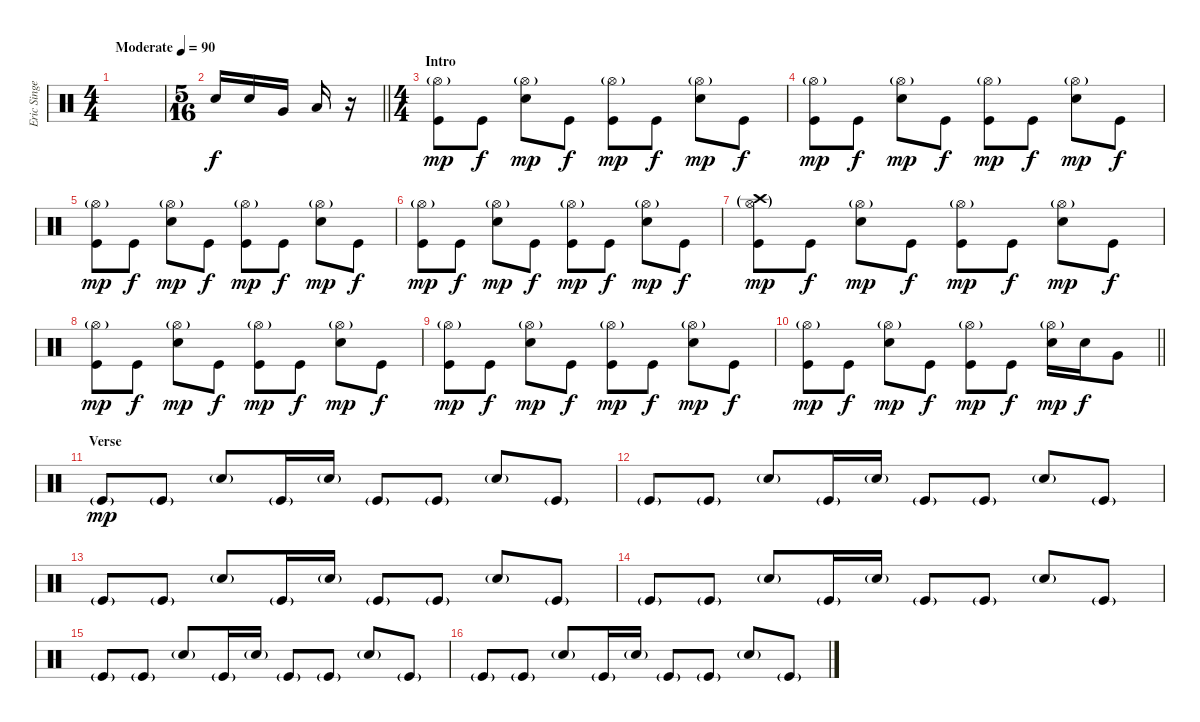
\track ("Eric Singer (Drums)" "Eric Singe") {instrument percussion}
\staff {score}
\articulation defaults
\ts (4 4)
\tempo (90 "Moderate")
\clef neutral
\ks c
|
\ts (5 16)
\barLineRight lightlight "Snare (hit) 2".16 "Snare (hit) 2".16 "Very Low Tom (hit)".16 "Low Floor Tom (hit)".16
r.16 |
\ts (4 4)
\section ("" "Intro")
("Hi-Hat (open)"{g} "Kick (hit)").8{dy mp} "Kick (hit)".8{dy f} ("Hi-Hat (open)"{g} "Snare (hit) 2").8{dy mp} "Kick (hit)".8{dy f} ("Hi-Hat (open)"{g} "Kick (hit)").8{dy mp} "Kick (hit)".8{dy f} ("Hi-Hat (open)"{g} "Snare (hit) 2").8{dy mp} "Kick (hit)".8{dy f} |
("Hi-Hat (open)"{g} "Kick (hit)").8{dy mp} "Kick (hit)".8{dy f} ("Hi-Hat (open)"{g} "Snare (hit) 2").8{dy mp} "Kick (hit)".8{dy f} ("Hi-Hat (open)"{g} "Kick (hit)").8{dy mp} "Kick (hit)".8{dy f} ("Hi-Hat (open)"{g} "Snare (hit) 2").8{dy mp} "Kick (hit)".8{dy f} |
("Hi-Hat (open)"{g} "Kick (hit)").8{dy mp} "Kick (hit)".8{dy f} ("Hi-Hat (open)"{g} "Snare (hit) 2").8{dy mp} "Kick (hit)".8{dy f} ("Hi-Hat (open)"{g} "Kick (hit)").8{dy mp} "Kick (hit)".8{dy f} ("Hi-Hat (open)"{g} "Snare (hit) 2").8{dy mp} "Kick (hit)".8{dy f} |
("Hi-Hat (open)"{g} "Kick (hit)").8{dy mp} "Kick (hit)".8{dy f} ("Hi-Hat (open)"{g} "Snare (hit) 2").8{dy mp} "Kick (hit)".8{dy f} ("Hi-Hat (open)"{g} "Kick (hit)").8{dy mp} "Kick (hit)".8{dy f} ("Hi-Hat (open)"{g} "Snare (hit) 2").8{dy mp} "Kick (hit)".8{dy f} |
("Crash high (hit)"{g} "Hi-Hat (open)"{g} "Kick (hit)").8{dy mp} "Kick (hit)".8{dy f} ("Hi-Hat (open)"{g} "Snare (hit) 2").8{dy mp} "Kick (hit)".8{dy f} ("Hi-Hat (open)"{g} "Kick (hit)").8{dy mp} "Kick (hit)".8{dy f} ("Hi-Hat (open)"{g} "Snare (hit) 2").8{dy mp} "Kick (hit)".8{dy f} |
("Hi-Hat (open)"{g} "Kick (hit)").8{dy mp} "Kick (hit)".8{dy f} ("Hi-Hat (open)"{g} "Snare (hit) 2").8{dy mp} "Kick (hit)".8{dy f} ("Hi-Hat (open)"{g} "Kick (hit)").8{dy mp} "Kick (hit)".8{dy f} ("Hi-Hat (open)"{g} "Snare (hit) 2").8{dy mp} "Kick (hit)".8{dy f} |
("Hi-Hat (open)"{g} "Kick (hit)").8{dy mp} "Kick (hit)".8{dy f} ("Hi-Hat (open)"{g} "Snare (hit) 2").8{dy mp} "Kick (hit)".8{dy f} ("Hi-Hat (open)"{g} "Kick (hit)").8{dy mp} "Kick (hit)".8{dy f} ("Hi-Hat (open)"{g} "Snare (hit) 2").8{dy mp} "Kick (hit)".8{dy f} |
\barLineRight lightlight
("Hi-Hat (open)"{g} "Kick (hit)").8{dy mp} "Kick (hit)".8{dy f} ("Hi-Hat (open)"{g} "Snare (hit) 2").8{dy mp} "Kick (hit)".8{dy f} ("Hi-Hat (open)"{g} "Kick (hit)").8{dy mp} "Kick (hit)".8{dy f} ("Hi-Hat (open)"{g} "Snare (hit) 2").16{dy mp} "Snare (hit) 2".16{dy f} "Very Low Tom (hit)".8 |
\section ("" "Verse")
"Kick (hit)"{g}.8{dy mp} "Kick (hit)"{g}.8 "Snare (hit) 2"{g}.8 "Kick (hit)"{g}.16 "Snare (hit) 2"{g}.16 "Kick (hit)"{g}.8 "Kick (hit)"{g}.8 "Snare (hit) 2"{g}.8 "Kick (hit)"{g}.8 |
"Kick (hit)"{g}.8 "Kick (hit)"{g}.8 "Snare (hit) 2"{g}.8 "Kick (hit)"{g}.16 "Snare (hit) 2"{g}.16 "Kick (hit)"{g}.8 "Kick (hit)"{g}.8 "Snare (hit) 2"{g}.8 "Kick (hit)"{g}.8 |
"Kick (hit)"{g}.8 "Kick (hit)"{g}.8 "Snare (hit) 2"{g}.8 "Kick (hit)"{g}.16 "Snare (hit) 2"{g}.16 "Kick (hit)"{g}.8 "Kick (hit)"{g}.8 "Snare (hit) 2"{g}.8 "Kick (hit)"{g}.8 |
"Kick (hit)"{g}.8 "Kick (hit)"{g}.8 "Snare (hit) 2"{g}.8 "Kick (hit)"{g}.16 "Snare (hit) 2"{g}.16 "Kick (hit)"{g}.8 "Kick (hit)"{g}.8 "Snare (hit) 2"{g}.8 "Kick (hit)"{g}.8 |
"Kick (hit)"{g}.8 "Kick (hit)"{g}.8 "Snare (hit) 2"{g}.8 "Kick (hit)"{g}.16 "Snare (hit) 2"{g}.16 "Kick (hit)"{g}.8 "Kick (hit)"{g}.8 "Snare (hit) 2"{g}.8 "Kick (hit)"{g}.8 |
"Kick (hit)"{g}.8 "Kick (hit)"{g}.8 "Snare (hit) 2"{g}.8 "Kick (hit)"{g}.16 "Snare (hit) 2"{g}.16 "Kick (hit)"{g}.8 "Kick (hit)"{g}.8 "Snare (hit) 2"{g}.8 "Kick (hit)"{g}.8
